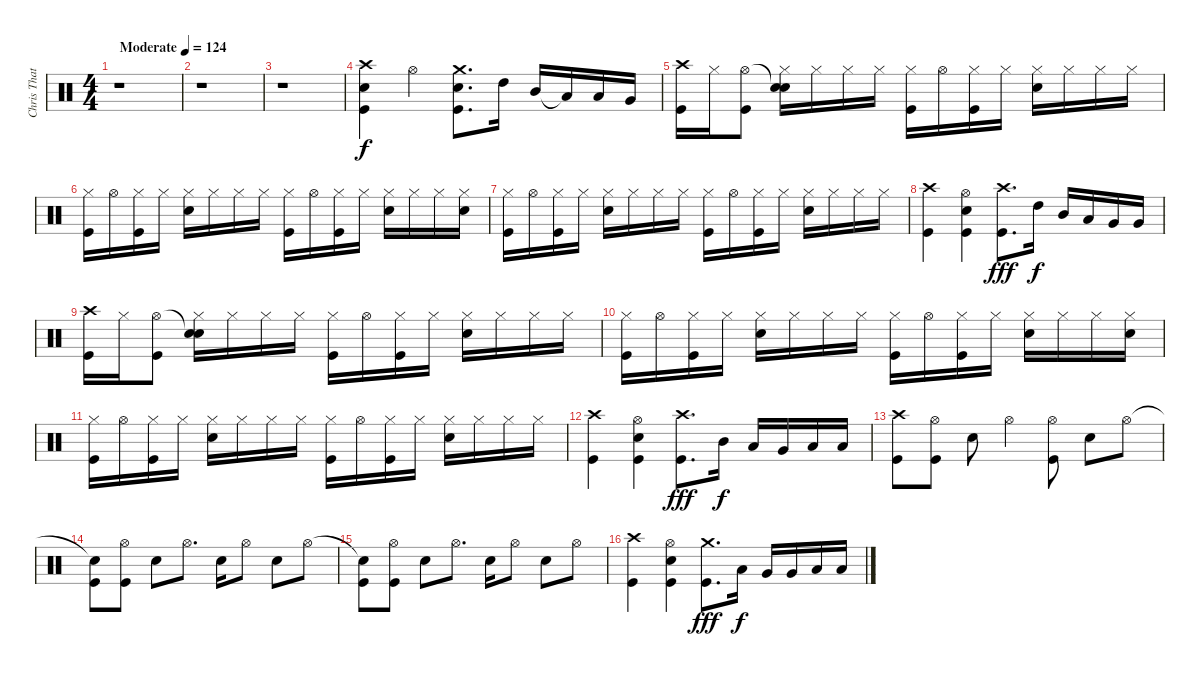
\track ("Chris Thatcher" "Chris That") {instrument percussion}
\staff {score}
\articulation defaults
\ts (4 4)
\section ("" "")
\tempo (124 "Moderate")
\clef neutral
\ks c
r.1{dy f} |
r.1 |
r.1 |
("Crash high (hit)" "Electric Snare (hit)" "Kick (hit)").4 "Hi-Hat (open)".4 ("Crash medium (hit)" "Electric Snare (hit)" "Kick (hit)").8{d} "High Tom (hit)".16 "Mid Tom (hit)".16 "Low Tom (hit)"{t}.16 "Low Tom (hit)".16 "Very Low Tom (hit)".16 |
("Crash high (hit)" "Kick (hit)").16 "Hi-Hat (closed)".16 ("Hi-Hat (open)" "Kick (hit)").8 ("Snare (hit)"{t} "Hi-Hat (closed)" "Electric Snare (hit)").16 "Hi-Hat (closed)".16 "Hi-Hat (closed)".16 "Hi-Hat (closed)".16 ("Hi-Hat (closed)" "Kick (hit)").16 "Hi-Hat (open)".16 ("Hi-Hat (closed)" "Kick (hit)").16 "Hi-Hat (closed)".16 ("Hi-Hat (closed)" "Electric Snare (hit)").16 "Hi-Hat (closed)".16 "Hi-Hat (closed)".16 "Hi-Hat (closed)".16 |
("Hi-Hat (closed)" "Kick (hit)").16 "Hi-Hat (open)".16 ("Hi-Hat (closed)" "Kick (hit)").16 "Hi-Hat (closed)".16 ("Hi-Hat (closed)" "Electric Snare (hit)").16 "Hi-Hat (closed)".16 "Hi-Hat (closed)".16 "Hi-Hat (closed)".16 ("Hi-Hat (closed)" "Kick (hit)").16 "Hi-Hat (open)".16 ("Hi-Hat (closed)" "Kick (hit)").16 "Hi-Hat (closed)".16 ("Hi-Hat (closed)" "Electric Snare (hit)").16 "Hi-Hat (closed)".16 "Hi-Hat (closed)".16 ("Hi-Hat (closed)" "Electric Snare (hit)").16 |
("Hi-Hat (closed)" "Kick (hit)").16 "Hi-Hat (open)".16 ("Hi-Hat (closed)" "Kick (hit)").16 "Hi-Hat (closed)".16 ("Hi-Hat (closed)" "Electric Snare (hit)").16 "Hi-Hat (closed)".16 "Hi-Hat (closed)".16 "Hi-Hat (closed)".16 ("Hi-Hat (closed)" "Kick (hit)").16 "Hi-Hat (open)".16 ("Hi-Hat (closed)" "Kick (hit)").16 "Hi-Hat (closed)".16 ("Hi-Hat (closed)" "Electric Snare (hit)").16 "Hi-Hat (closed)".16 "Hi-Hat (closed)".16 "Hi-Hat (closed)".16 |
("Crash high (hit)" "Kick (hit)").4 ("Hi-Hat (open)" "Electric Snare (hit)" "Kick (hit)").4 ("Crash high (hit)" "Kick (hit)").8{d dy fff} "High Tom (hit)".16{dy f} "Mid Tom (hit)".16 "Low Tom (hit)".16 "Very Low Tom (hit)".16 "Very Low Tom (hit)".16 |
("Crash high (hit)" "Kick (hit)").16 "Hi-Hat (closed)".16 ("Hi-Hat (open)" "Kick (hit)").8 ("Snare (hit)"{t} "Hi-Hat (closed)" "Electric Snare (hit)").16 "Hi-Hat (closed)".16 "Hi-Hat (closed)".16 "Hi-Hat (closed)".16 ("Hi-Hat (closed)" "Kick (hit)").16 "Hi-Hat (open)".16 ("Hi-Hat (closed)" "Kick (hit)").16 "Hi-Hat (closed)".16 ("Hi-Hat (closed)" "Electric Snare (hit)").16 "Hi-Hat (closed)".16 "Hi-Hat (closed)".16 "Hi-Hat (closed)".16 |
("Hi-Hat (closed)" "Kick (hit)").16 "Hi-Hat (open)".16 ("Hi-Hat (closed)" "Kick (hit)").16 "Hi-Hat (closed)".16 ("Hi-Hat (closed)" "Electric Snare (hit)").16 "Hi-Hat (closed)".16 "Hi-Hat (closed)".16 "Hi-Hat (closed)".16 ("Hi-Hat (closed)" "Kick (hit)").16 "Hi-Hat (open)".16 ("Hi-Hat (closed)" "Kick (hit)").16 "Hi-Hat (closed)".16 ("Hi-Hat (closed)" "Electric Snare (hit)").16 "Hi-Hat (closed)".16 "Hi-Hat (closed)".16 ("Hi-Hat (closed)" "Electric Snare (hit)").16 |
("Hi-Hat (closed)" "Kick (hit)").16 "Hi-Hat (open)".16 ("Hi-Hat (closed)" "Kick (hit)").16 "Hi-Hat (closed)".16 ("Hi-Hat (closed)" "Electric Snare (hit)").16 "Hi-Hat (closed)".16 "Hi-Hat (closed)".16 "Hi-Hat (closed)".16 ("Hi-Hat (closed)" "Kick (hit)").16 "Hi-Hat (open)".16 ("Hi-Hat (closed)" "Kick (hit)").16 "Hi-Hat (closed)".16 ("Hi-Hat (closed)" "Electric Snare (hit)").16 "Hi-Hat (closed)".16 "Hi-Hat (closed)".16 "Hi-Hat (closed)".16 |
("Crash high (hit)" "Kick (hit)").4 ("Hi-Hat (open)" "Electric Snare (hit)" "Kick (hit)").4 ("Crash high (hit)" "Kick (hit)").8{d dy fff} "Mid Tom (hit)".16{dy f} "Low Tom (hit)".16 "Very Low Tom (hit)".16 "Low Floor Tom (hit)".16 "Low Floor Tom (hit)".16 |
("Crash high (hit)" "Kick (hit)").8 ("Hi-Hat (open)" "Kick (hit)").8 "Electric Snare (hit)".8 "Hi-Hat (open)".4 ("Hi-Hat (open)" "Kick (hit)").8 "Electric Snare (hit)".8 "Hi-Hat (open)".8 |
("Snare (hit)"{t} "Kick (hit)").8 ("Hi-Hat (open)" "Kick (hit)").8 "Electric Snare (hit)".8 "Hi-Hat (open)".8{d} "Electric Snare (hit)".16 "Hi-Hat (open)".8 "Electric Snare (hit)".8 "Hi-Hat (open)".8 |
("Snare (hit)"{t} "Kick (hit)").8 ("Hi-Hat (open)" "Kick (hit)").8 "Electric Snare (hit)".8 "Hi-Hat (open)".8{d} "Electric Snare (hit)".16 "Hi-Hat (open)".8 "Electric Snare (hit)".8 "Hi-Hat (open)".8 |
("Crash high (hit)" "Kick (hit)").4 ("Hi-Hat (open)" "Electric Snare (hit)" "Kick (hit)").4 ("Crash medium (hit)" "Kick (hit)").8{d dy fff} "Low Tom (hit)".16{dy f} "Very Low Tom (hit)".16 "Very Low Tom (hit)".16 "Low Floor Tom (hit)".16 "Low Floor Tom (hit)".16
